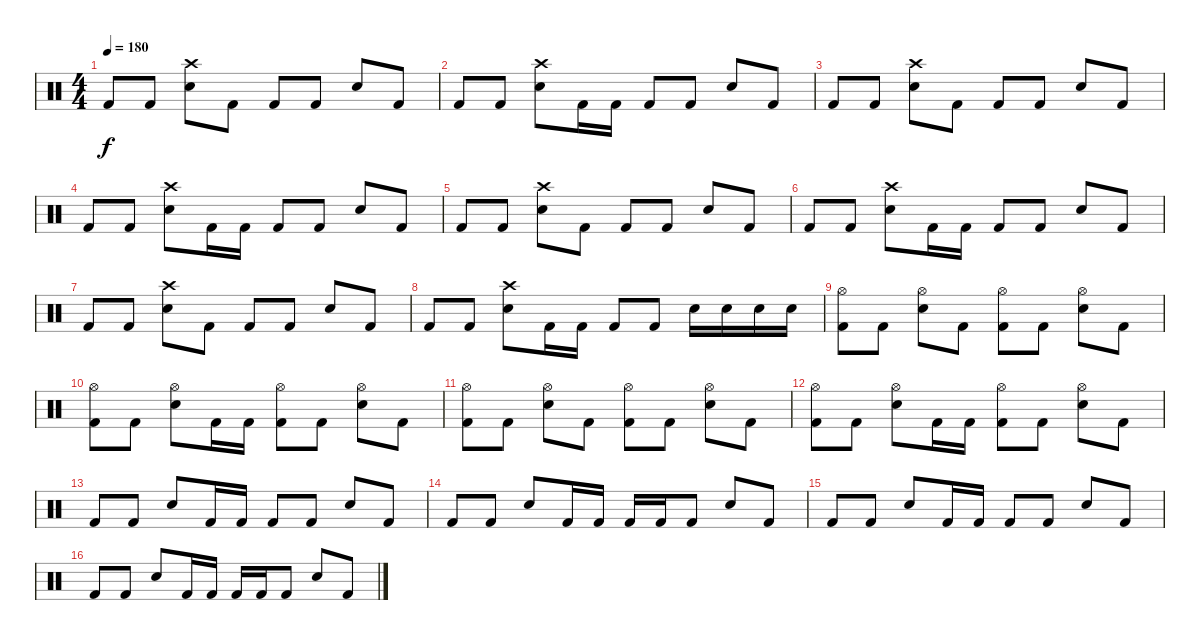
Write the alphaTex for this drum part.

\track "" {instrument percussion}
\staff {score}
\articulation defaults
\ts (4 4)
\tempo 180
\clef neutral
\ks c "Kick (hit) 2".8{dy f} "Kick (hit) 2".8
("Crash high (hit)" "Snare (hit) 2").8 "Kick (hit) 2".8 "Kick (hit) 2".8 "Kick (hit) 2".8 "Snare (hit) 2".8 "Kick (hit) 2".8 |
"Kick (hit) 2".8 "Kick (hit) 2".8 ("Crash high (hit)" "Snare (hit) 2").8 "Kick (hit) 2".16 "Kick (hit) 2".16 "Kick (hit) 2".8 "Kick (hit) 2".8 "Snare (hit) 2".8 "Kick (hit) 2".8 |
"Kick (hit) 2".8 "Kick (hit) 2".8 ("Crash high (hit)" "Snare (hit) 2").8 "Kick (hit) 2".8 "Kick (hit) 2".8 "Kick (hit) 2".8 "Snare (hit) 2".8 "Kick (hit) 2".8 |
"Kick (hit) 2".8 "Kick (hit) 2".8 ("Crash high (hit)" "Snare (hit) 2").8 "Kick (hit) 2".16 "Kick (hit) 2".16 "Kick (hit) 2".8 "Kick (hit) 2".8 "Snare (hit) 2".8 "Kick (hit) 2".8 |
"Kick (hit) 2".8 "Kick (hit) 2".8 ("Crash high (hit)" "Snare (hit) 2").8 "Kick (hit) 2".8 "Kick (hit) 2".8 "Kick (hit) 2".8 "Snare (hit) 2".8 "Kick (hit) 2".8 |
"Kick (hit) 2".8 "Kick (hit) 2".8 ("Crash high (hit)" "Snare (hit) 2").8 "Kick (hit) 2".16 "Kick (hit) 2".16 "Kick (hit) 2".8 "Kick (hit) 2".8 "Snare (hit) 2".8 "Kick (hit) 2".8 |
"Kick (hit) 2".8 "Kick (hit) 2".8 ("Crash high (hit)" "Snare (hit) 2").8 "Kick (hit) 2".8 "Kick (hit) 2".8 "Kick (hit) 2".8 "Snare (hit) 2".8 "Kick (hit) 2".8 |
"Kick (hit) 2".8 "Kick (hit) 2".8 ("Crash high (hit)" "Snare (hit) 2").8 "Kick (hit) 2".16 "Kick (hit) 2".16 "Kick (hit) 2".8 "Kick (hit) 2".8 "Snare (hit) 2".16 "Snare (hit) 2".16 "Snare (hit) 2".16 "Snare (hit) 2".16 |
("Hi-Hat (open)" "Kick (hit) 2").8 "Kick (hit) 2".8 ("Hi-Hat (open)" "Snare (hit) 2").8 "Kick (hit) 2".8 ("Hi-Hat (open)" "Kick (hit) 2").8 "Kick (hit) 2".8 ("Hi-Hat (open)" "Snare (hit) 2").8 "Kick (hit) 2".8 |
("Hi-Hat (open)" "Kick (hit) 2").8 "Kick (hit) 2".8 ("Hi-Hat (open)" "Snare (hit) 2").8 "Kick (hit) 2".16 "Kick (hit) 2".16 ("Hi-Hat (open)" "Kick (hit) 2").8 "Kick (hit) 2".8 ("Hi-Hat (open)" "Snare (hit) 2").8 "Kick (hit) 2".8 |
("Hi-Hat (open)" "Kick (hit) 2").8 "Kick (hit) 2".8 ("Hi-Hat (open)" "Snare (hit) 2").8 "Kick (hit) 2".8 ("Hi-Hat (open)" "Kick (hit) 2").8 "Kick (hit) 2".8 ("Hi-Hat (open)" "Snare (hit) 2").8 "Kick (hit) 2".8 |
("Hi-Hat (open)" "Kick (hit) 2").8 "Kick (hit) 2".8 ("Hi-Hat (open)" "Snare (hit) 2").8 "Kick (hit) 2".16 "Kick (hit) 2".16 ("Hi-Hat (open)" "Kick (hit) 2").8 "Kick (hit) 2".8 ("Hi-Hat (open)" "Snare (hit) 2").8 "Kick (hit) 2".8 |
"Kick (hit) 2".8 "Kick (hit) 2".8 "Electric Snare (hit)".8 "Kick (hit) 2".16 "Kick (hit) 2".16 "Kick (hit) 2".8 "Kick (hit) 2".8 "Electric Snare (hit)".8 "Kick (hit) 2".8 |
"Kick (hit) 2".8 "Kick (hit) 2".8 "Electric Snare (hit)".8 "Kick (hit) 2".16 "Kick (hit) 2".16 "Kick (hit) 2".16 "Kick (hit) 2".16 "Kick (hit) 2".8 "Electric Snare (hit)".8 "Kick (hit) 2".8 |
"Kick (hit) 2".8 "Kick (hit) 2".8 "Electric Snare (hit)".8 "Kick (hit) 2".16 "Kick (hit) 2".16 "Kick (hit) 2".8 "Kick (hit) 2".8 "Electric Snare (hit)".8 "Kick (hit) 2".8 |
"Kick (hit) 2".8 "Kick (hit) 2".8 "Electric Snare (hit)".8 "Kick (hit) 2".16 "Kick (hit) 2".16 "Kick (hit) 2".16 "Kick (hit) 2".16 "Kick (hit) 2".8 "Electric Snare (hit)".8 "Kick (hit) 2".8
